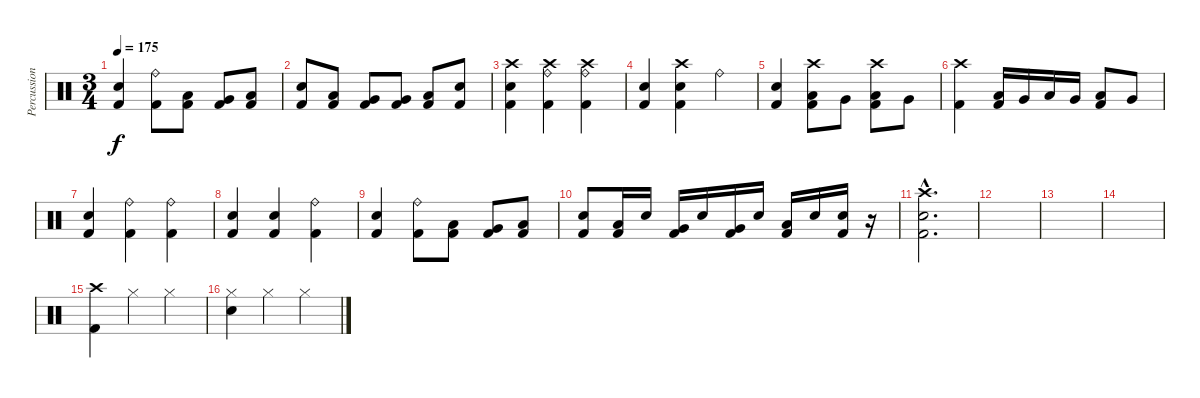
\track ("Percussion" "Percussion") {instrument percussion}
\staff {score}
\articulation defaults
\ts (3 4)
\tempo 175
\clef neutral
\ks c
("Electric Snare (hit)" "Kick (hit) 2").4{dy f} ("Ride (bell)" "Kick (hit) 2").8 ("Low Floor Tom (hit)" "Kick (hit) 2").8 ("Very Low Tom (hit)" "Kick (hit) 2").8 ("Low Floor Tom (hit)" "Kick (hit) 2").8 |
("Electric Snare (hit)" "Kick (hit) 2").8 ("Low Floor Tom (hit)" "Kick (hit) 2").8 ("Very Low Tom (hit)" "Kick (hit) 2").8 ("Very Low Tom (hit)" "Kick (hit) 2").8 ("Low Floor Tom (hit)" "Kick (hit) 2").8 ("Electric Snare (hit)" "Kick (hit) 2").8 |
("Crash high (hit)" "Electric Snare (hit)" "Kick (hit) 2").4 ("Crash high (hit)" "Ride (bell)" "Kick (hit) 2").4 ("Crash high (hit)" "Ride (bell)" "Kick (hit) 2").4 |
("Electric Snare (hit)" "Kick (hit) 2").4 ("Crash high (hit)" "Electric Snare (hit)" "Kick (hit) 2").4 "Ride (bell)".4 |
("Electric Snare (hit)" "Kick (hit) 2").4 ("Crash high (hit)" "Low Floor Tom (hit)" "Kick (hit) 2").8 "Very Low Tom (hit)".8 ("Crash high (hit)" "Low Floor Tom (hit)" "Kick (hit) 2").8 "Very Low Tom (hit)".8 |
("Crash high (hit)" "Kick (hit) 2").4 ("Low Floor Tom (hit)" "Kick (hit) 2").16 "Very Low Tom (hit)".16 "Low Floor Tom (hit)".16 "Very Low Tom (hit)".16 ("Low Floor Tom (hit)" "Kick (hit) 2").8 "Very Low Tom (hit)".8 |
("Electric Snare (hit)" "Kick (hit) 2").4 ("Ride (bell)" "Kick (hit) 2").4 ("Ride (bell)" "Kick (hit) 2").4 |
("Electric Snare (hit)" "Kick (hit) 2").4 ("Electric Snare (hit)" "Kick (hit) 2").4 ("Ride (bell)" "Kick (hit) 2").4 |
("Electric Snare (hit)" "Kick (hit) 2").4 ("Ride (bell)" "Kick (hit) 2").8 ("Low Floor Tom (hit)" "Kick (hit) 2").8 ("Very Low Tom (hit)" "Kick (hit) 2").8 ("Low Floor Tom (hit)" "Kick (hit) 2").8 |
("Electric Snare (hit)" "Kick (hit) 2").8 ("Low Floor Tom (hit)" "Kick (hit) 2").16 "Electric Snare (hit)".16 ("Very Low Tom (hit)" "Kick (hit) 2").16 "Electric Snare (hit)".16 ("Very Low Tom (hit)" "Kick (hit) 2").16 "Electric Snare (hit)".16 ("Low Floor Tom (hit)" "Kick (hit) 2").16 "Electric Snare (hit)".16 ("Electric Snare (hit)" "Kick (hit) 2").16 r.16 |
("Crash high (hit)"{hac} "Electric Snare (hit)"{hac} "Kick (hit) 2"{hac}).2{d} |
|
|
|
("Crash high (hit)" "Kick (hit) 2").4 "Hi-Hat (closed)".4 "Hi-Hat (closed)".4 |
("Electric Snare (hit)" "Hi-Hat (closed)").4 "Hi-Hat (closed)".4 "Hi-Hat (closed)".4
